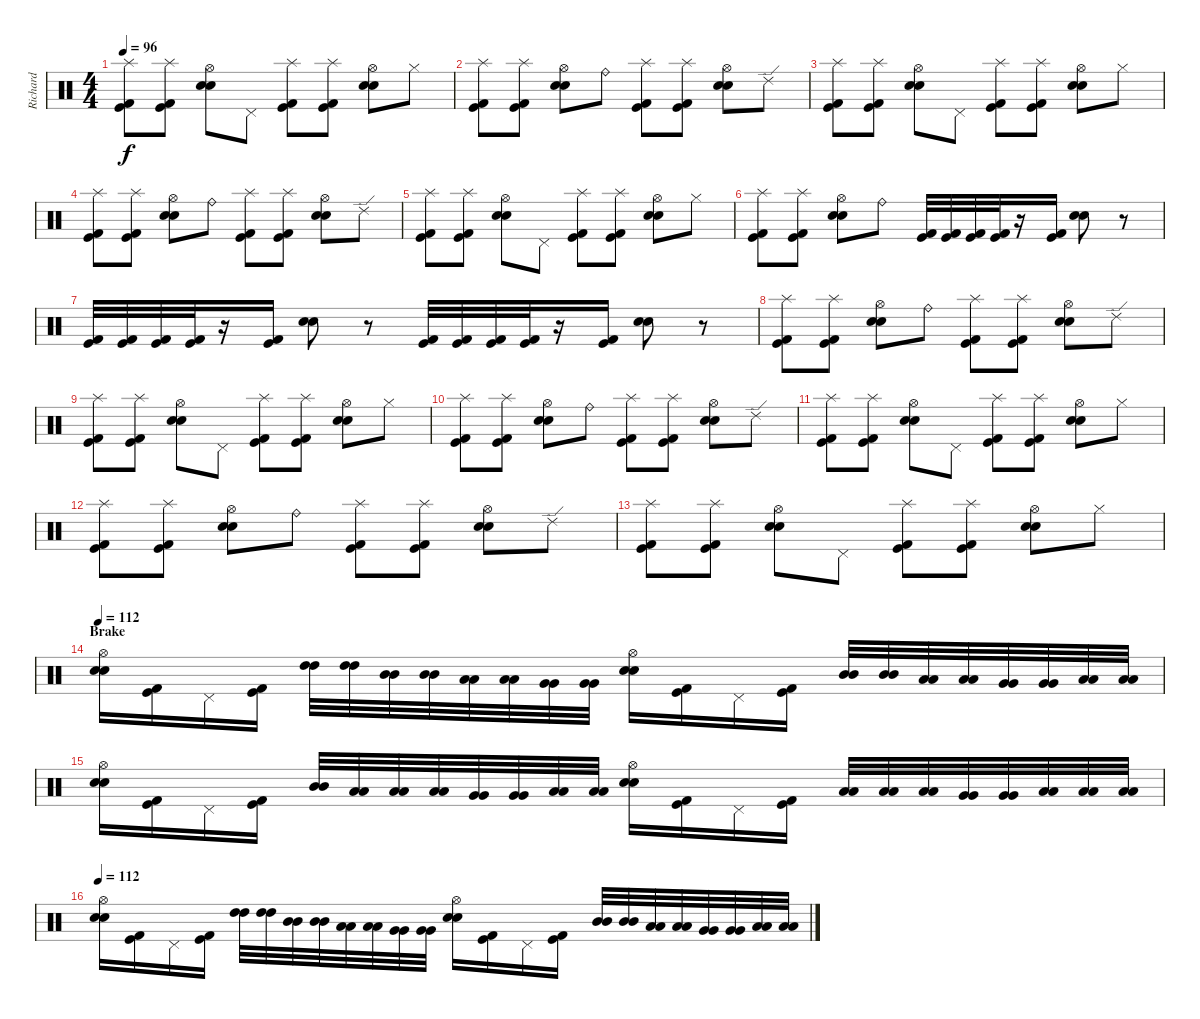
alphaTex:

\track ("Richard" "Richard") {instrument percussion}
\staff {score}
\articulation defaults
\ts (4 4)
\tempo 96
\clef neutral
\ks c
("Splash (hit)" "Kick (hit)" "Kick (hit) 2").8{dy f} ("Splash (hit)" "Kick (hit)" "Kick (hit) 2").8 ("Hi-Hat (open)" "Snare (hit) 2" "Electric Snare (hit)").8 "Pedal Hi-Hat (hit)".8 ("Splash (hit)" "Kick (hit)" "Kick (hit) 2").8 ("Splash (hit)" "Kick (hit)" "Kick (hit) 2").8 ("Hi-Hat (open)" "Snare (hit) 2" "Electric Snare (hit)").8 "Hi-Hat (closed)".8 |
("Splash (hit)" "Kick (hit)" "Kick (hit) 2").8 ("Splash (hit)" "Kick (hit)" "Kick (hit) 2").8 ("Hi-Hat (open)" "Snare (hit) 2" "Electric Snare (hit)").8 "Ride (bell)".8 ("Splash (hit)" "Kick (hit)" "Kick (hit) 2").8 ("Splash (hit)" "Kick (hit)" "Kick (hit) 2").8 ("Hi-Hat (open)" "Snare (hit) 2" "Electric Snare (hit)").8 "Ride (edge) 2".8 |
("Splash (hit)" "Kick (hit)" "Kick (hit) 2").8 ("Splash (hit)" "Kick (hit)" "Kick (hit) 2").8 ("Hi-Hat (open)" "Snare (hit) 2" "Electric Snare (hit)").8 "Pedal Hi-Hat (hit)".8 ("Splash (hit)" "Kick (hit)" "Kick (hit) 2").8 ("Splash (hit)" "Kick (hit)" "Kick (hit) 2").8 ("Hi-Hat (open)" "Snare (hit) 2" "Electric Snare (hit)").8 "Hi-Hat (closed)".8 |
("Splash (hit)" "Kick (hit)" "Kick (hit) 2").8 ("Splash (hit)" "Kick (hit)" "Kick (hit) 2").8 ("Hi-Hat (open)" "Snare (hit) 2" "Electric Snare (hit)").8 "Ride (bell)".8 ("Splash (hit)" "Kick (hit)" "Kick (hit) 2").8 ("Splash (hit)" "Kick (hit)" "Kick (hit) 2").8 ("Hi-Hat (open)" "Snare (hit) 2" "Electric Snare (hit)").8 "Ride (edge) 2".8 |
("Splash (hit)" "Kick (hit)" "Kick (hit) 2").8 ("Splash (hit)" "Kick (hit)" "Kick (hit) 2").8 ("Hi-Hat (open)" "Snare (hit) 2" "Electric Snare (hit)").8 "Pedal Hi-Hat (hit)".8 ("Splash (hit)" "Kick (hit)" "Kick (hit) 2").8 ("Splash (hit)" "Kick (hit)" "Kick (hit) 2").8 ("Hi-Hat (open)" "Snare (hit) 2" "Electric Snare (hit)").8 "Hi-Hat (closed)".8 |
("Splash (hit)" "Kick (hit)" "Kick (hit) 2").8 ("Splash (hit)" "Kick (hit)" "Kick (hit) 2").8 ("Hi-Hat (open)" "Snare (hit) 2" "Electric Snare (hit)").8 "Ride (bell)".8 ("Kick (hit)" "Kick (hit) 2").32 ("Kick (hit)" "Kick (hit) 2").32 ("Kick (hit)" "Kick (hit) 2").32 ("Kick (hit)" "Kick (hit) 2").32 r.16 ("Kick (hit)" "Kick (hit) 2").16 ("Snare (hit) 2" "Electric Snare (hit)").8 r.8 |
("Kick (hit)" "Kick (hit) 2").32 ("Kick (hit)" "Kick (hit) 2").32 ("Kick (hit)" "Kick (hit) 2").32 ("Kick (hit)" "Kick (hit) 2").32 r.16 ("Kick (hit)" "Kick (hit) 2").16 ("Snare (hit) 2" "Electric Snare (hit)").8 r.8 ("Kick (hit)" "Kick (hit) 2").32 ("Kick (hit)" "Kick (hit) 2").32 ("Kick (hit)" "Kick (hit) 2").32 ("Kick (hit)" "Kick (hit) 2").32 r.16 ("Kick (hit)" "Kick (hit) 2").16 ("Snare (hit) 2" "Electric Snare (hit)").8 r.8 |
("Splash (hit)" "Kick (hit)" "Kick (hit) 2").8 ("Splash (hit)" "Kick (hit)" "Kick (hit) 2").8 ("Hi-Hat (open)" "Snare (hit) 2" "Electric Snare (hit)").8 "Ride (bell)".8 ("Splash (hit)" "Kick (hit)" "Kick (hit) 2").8 ("Splash (hit)" "Kick (hit)" "Kick (hit) 2").8 ("Hi-Hat (open)" "Snare (hit) 2" "Electric Snare (hit)").8 "Ride (edge) 2".8 |
("Splash (hit)" "Kick (hit)" "Kick (hit) 2").8 ("Splash (hit)" "Kick (hit)" "Kick (hit) 2").8 ("Hi-Hat (open)" "Snare (hit) 2" "Electric Snare (hit)").8 "Pedal Hi-Hat (hit)".8 ("Splash (hit)" "Kick (hit)" "Kick (hit) 2").8 ("Splash (hit)" "Kick (hit)" "Kick (hit) 2").8 ("Hi-Hat (open)" "Snare (hit) 2" "Electric Snare (hit)").8 "Hi-Hat (closed)".8 |
("Splash (hit)" "Kick (hit)" "Kick (hit) 2").8 ("Splash (hit)" "Kick (hit)" "Kick (hit) 2").8 ("Hi-Hat (open)" "Snare (hit) 2" "Electric Snare (hit)").8 "Ride (bell)".8 ("Splash (hit)" "Kick (hit)" "Kick (hit) 2").8 ("Splash (hit)" "Kick (hit)" "Kick (hit) 2").8 ("Hi-Hat (open)" "Snare (hit) 2" "Electric Snare (hit)").8 "Ride (edge) 2".8 |
("Splash (hit)" "Kick (hit)" "Kick (hit) 2").8 ("Splash (hit)" "Kick (hit)" "Kick (hit) 2").8 ("Hi-Hat (open)" "Snare (hit) 2" "Electric Snare (hit)").8 "Pedal Hi-Hat (hit)".8 ("Splash (hit)" "Kick (hit)" "Kick (hit) 2").8 ("Splash (hit)" "Kick (hit)" "Kick (hit) 2").8 ("Hi-Hat (open)" "Snare (hit) 2" "Electric Snare (hit)").8 "Hi-Hat (closed)".8 |
("Splash (hit)" "Kick (hit)" "Kick (hit) 2").8 ("Splash (hit)" "Kick (hit)" "Kick (hit) 2").8 ("Hi-Hat (open)" "Snare (hit) 2" "Electric Snare (hit)").8 "Ride (bell)".8 ("Splash (hit)" "Kick (hit)" "Kick (hit) 2").8 ("Splash (hit)" "Kick (hit)" "Kick (hit) 2").8 ("Hi-Hat (open)" "Snare (hit) 2" "Electric Snare (hit)").8 "Ride (edge) 2".8 |
("Splash (hit)" "Kick (hit)" "Kick (hit) 2").8 ("Splash (hit)" "Kick (hit)" "Kick (hit) 2").8 ("Hi-Hat (open)" "Snare (hit) 2" "Electric Snare (hit)").8 "Pedal Hi-Hat (hit)".8 ("Splash (hit)" "Kick (hit)" "Kick (hit) 2").8 ("Splash (hit)" "Kick (hit)" "Kick (hit) 2").8 ("Hi-Hat (open)" "Snare (hit) 2" "Electric Snare (hit)").8 "Hi-Hat (closed)".8 |
\section ("" "Brake")
\tempo 112
("Hi-Hat (open)" "Snare (hit) 2" "Electric Snare (hit)").16 ("Kick (hit)" "Kick (hit) 2").16 "Pedal Hi-Hat (hit)".16 ("Kick (hit)" "Kick (hit) 2").16 ("High Tom (hit)" "High Tom (hit)").32 ("High Tom (hit)" "High Tom (hit)").32 ("Mid Tom (hit)" "Mid Tom (hit)").32 ("Mid Tom (hit)" "Mid Tom (hit)").32 ("Low Tom (hit)" "Low Tom (hit)").32 ("Low Tom (hit)" "Low Tom (hit)").32 ("Very Low Tom (hit)" "Very Low Tom (hit)").32 ("Very Low Tom (hit)" "Very Low Tom (hit)").32 ("Hi-Hat (open)" "Snare (hit) 2" "Electric Snare (hit)").16 ("Kick (hit)" "Kick (hit) 2").16 "Pedal Hi-Hat (hit)".16 ("Kick (hit)" "Kick (hit) 2").16 ("Mid Tom (hit)" "Mid Tom (hit)").32 ("Mid Tom (hit)" "Mid Tom (hit)").32 ("Low Tom (hit)" "Low Tom (hit)").32 ("Low Tom (hit)" "Low Tom (hit)").32 ("Very Low Tom (hit)" "Very Low Tom (hit)").32 ("Very Low Tom (hit)" "Very Low Tom (hit)").32 ("Low Floor Tom (hit)" "Low Floor Tom (hit)").32 ("Low Floor Tom (hit)" "Low Floor Tom (hit)").32 |
("Hi-Hat (open)" "Snare (hit) 2" "Electric Snare (hit)").16 ("Kick (hit)" "Kick (hit) 2").16 "Pedal Hi-Hat (hit)".16 ("Kick (hit)" "Kick (hit) 2").16 ("Mid Tom (hit)" "Mid Tom (hit)").32 ("Low Tom (hit)" "Low Tom (hit)").32 ("Low Tom (hit)" "Low Tom (hit)").32 ("Low Tom (hit)" "Low Tom (hit)").32 ("Very Low Tom (hit)" "Very Low Tom (hit)").32 ("Very Low Tom (hit)" "Very Low Tom (hit)").32 ("Low Floor Tom (hit)" "Low Floor Tom (hit)").32 ("Low Floor Tom (hit)" "Low Floor Tom (hit)").32 ("Hi-Hat (open)" "Snare (hit) 2" "Electric Snare (hit)").16 ("Kick (hit)" "Kick (hit) 2").16 "Pedal Hi-Hat (hit)".16 ("Kick (hit)" "Kick (hit) 2").16 ("Low Tom (hit)" "Low Tom (hit)").32 ("Low Tom (hit)" "Low Tom (hit)").32 ("Low Tom (hit)" "Low Tom (hit)").32 ("Very Low Tom (hit)" "Very Low Tom (hit)").32 ("Very Low Tom (hit)" "Very Low Tom (hit)").32 ("Low Floor Tom (hit)" "Low Floor Tom (hit)").32 ("Low Floor Tom (hit)" "Low Floor Tom (hit)").32 ("Low Floor Tom (hit)" "Low Floor Tom (hit)").32 |
\tempo 112
("Hi-Hat (open)" "Snare (hit) 2" "Electric Snare (hit)").16 ("Kick (hit)" "Kick (hit) 2").16 "Pedal Hi-Hat (hit)".16 ("Kick (hit)" "Kick (hit) 2").16 ("High Tom (hit)" "High Tom (hit)").32 ("High Tom (hit)" "High Tom (hit)").32 ("Mid Tom (hit)" "Mid Tom (hit)").32 ("Mid Tom (hit)" "Mid Tom (hit)").32 ("Low Tom (hit)" "Low Tom (hit)").32 ("Low Tom (hit)" "Low Tom (hit)").32 ("Very Low Tom (hit)" "Very Low Tom (hit)").32 ("Very Low Tom (hit)" "Very Low Tom (hit)").32 ("Hi-Hat (open)" "Snare (hit) 2" "Electric Snare (hit)").16 ("Kick (hit)" "Kick (hit) 2").16 "Pedal Hi-Hat (hit)".16 ("Kick (hit)" "Kick (hit) 2").16 ("Mid Tom (hit)" "Mid Tom (hit)").32 ("Mid Tom (hit)" "Mid Tom (hit)").32 ("Low Tom (hit)" "Low Tom (hit)").32 ("Low Tom (hit)" "Low Tom (hit)").32 ("Very Low Tom (hit)" "Very Low Tom (hit)").32 ("Very Low Tom (hit)" "Very Low Tom (hit)").32 ("Low Floor Tom (hit)" "Low Floor Tom (hit)").32 ("Low Floor Tom (hit)" "Low Floor Tom (hit)").32
